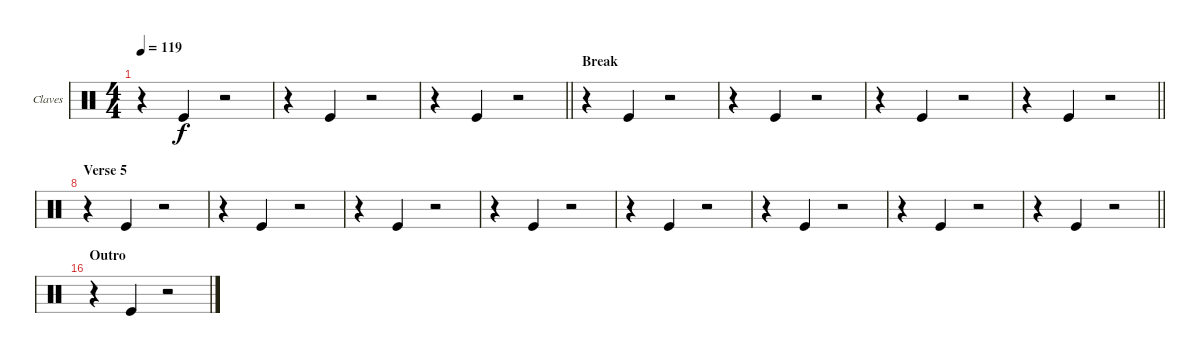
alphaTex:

\defaultSystemsLayout 4
\bracketExtendMode groupsimilarinstruments
\useSystemSignSeparator
\multiBarRest
\multiTrackTrackNamePolicy allsystems
\firstSystemTrackNameMode fullname
\firstSystemTrackNameOrientation horizontal
\otherSystemsTrackNameOrientation horizontal
\defaultBarNumberDisplay FirstOfSystem
\track ("Claves" "Claves") {multiBarRest instrument percussion}
\staff {score}
\articulation defaults
\ts (4 4)
\tempo 119
\clef neutral
\ks aminor
r.4{dy f} "Kick (hit)".4 r.2 |
r.4 "Kick (hit)".4 r.2 |
\barLineRight lightlight
r.4 "Kick (hit)".4 r.2 |
\section ("" "Break")
r.4 "Kick (hit)".4 r.2 |
r.4 "Kick (hit)".4 r.2 |
r.4 "Kick (hit)".4 r.2 |
\barLineRight lightlight
r.4 "Kick (hit)".4 r.2 |
\section ("" "Verse 5")
r.4 "Kick (hit)".4 r.2 |
r.4 "Kick (hit)".4 r.2 |
r.4 "Kick (hit)".4 r.2 |
r.4 "Kick (hit)".4 r.2 |
r.4 "Kick (hit)".4 r.2 |
r.4 "Kick (hit)".4 r.2 |
r.4 "Kick (hit)".4 r.2 |
\barLineRight lightlight
r.4 "Kick (hit)".4 r.2 |
\section ("" "Outro")
r.4 "Kick (hit)".4 r.2
